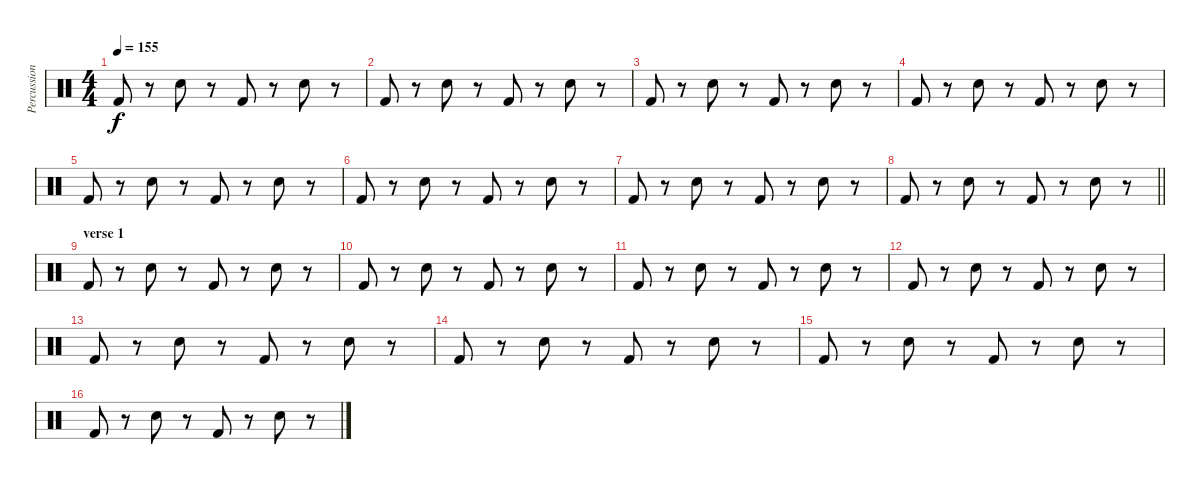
\track ("Percussions" "Percussion") {instrument percussion}
\staff {score}
\articulation defaults
\ts (4 4)
\tempo 155
\clef neutral
\ks c "Kick (hit) 2".8{dy f}
r.8 "Snare (hit) 2".8 r.8 "Kick (hit) 2".8 r.8 "Snare (hit) 2".8 r.8 |
"Kick (hit) 2".8 r.8 "Snare (hit) 2".8 r.8 "Kick (hit) 2".8 r.8 "Snare (hit) 2".8 r.8 |
"Kick (hit) 2".8 r.8 "Snare (hit) 2".8 r.8 "Kick (hit) 2".8 r.8 "Snare (hit) 2".8 r.8 |
"Kick (hit) 2".8 r.8 "Snare (hit) 2".8 r.8 "Kick (hit) 2".8 r.8 "Snare (hit) 2".8 r.8 |
"Kick (hit) 2".8 r.8 "Snare (hit) 2".8 r.8 "Kick (hit) 2".8 r.8 "Snare (hit) 2".8 r.8 |
"Kick (hit) 2".8 r.8 "Snare (hit) 2".8 r.8 "Kick (hit) 2".8 r.8 "Snare (hit) 2".8 r.8 |
"Kick (hit) 2".8 r.8 "Snare (hit) 2".8 r.8 "Kick (hit) 2".8 r.8 "Snare (hit) 2".8 r.8 |
\barLineRight lightlight "Kick (hit) 2".8
r.8 "Snare (hit) 2".8 r.8 "Kick (hit) 2".8 r.8 "Snare (hit) 2".8 r.8 |
\section ("" "verse 1")
"Kick (hit) 2".8 r.8 "Snare (hit) 2".8 r.8 "Kick (hit) 2".8 r.8 "Snare (hit) 2".8 r.8 |
"Kick (hit) 2".8 r.8 "Snare (hit) 2".8 r.8 "Kick (hit) 2".8 r.8 "Snare (hit) 2".8 r.8 |
"Kick (hit) 2".8 r.8 "Snare (hit) 2".8 r.8 "Kick (hit) 2".8 r.8 "Snare (hit) 2".8 r.8 |
"Kick (hit) 2".8 r.8 "Snare (hit) 2".8 r.8 "Kick (hit) 2".8 r.8 "Snare (hit) 2".8 r.8 |
"Kick (hit) 2".8 r.8 "Snare (hit) 2".8 r.8 "Kick (hit) 2".8 r.8 "Snare (hit) 2".8 r.8 |
"Kick (hit) 2".8 r.8 "Snare (hit) 2".8 r.8 "Kick (hit) 2".8 r.8 "Snare (hit) 2".8 r.8 |
"Kick (hit) 2".8 r.8 "Snare (hit) 2".8 r.8 "Kick (hit) 2".8 r.8 "Snare (hit) 2".8 r.8 |
"Kick (hit) 2".8 r.8 "Snare (hit) 2".8 r.8 "Kick (hit) 2".8 r.8 "Snare (hit) 2".8 r.8
